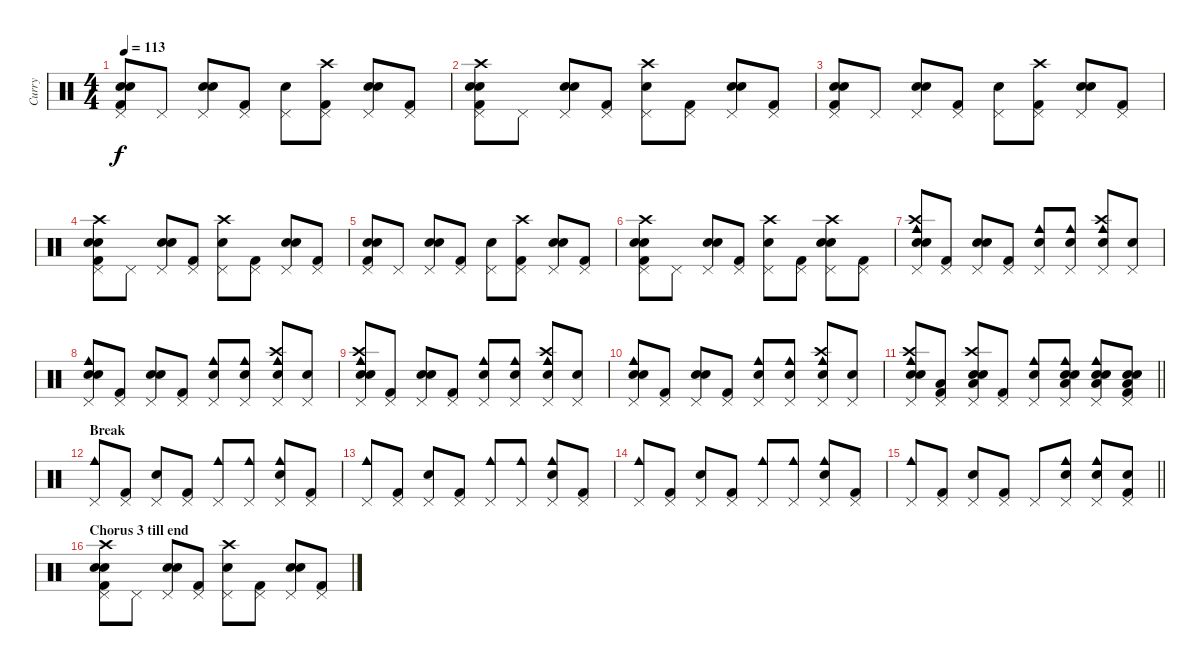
\track ("Curry" "Curry") {instrument percussion}
\staff {score}
\articulation defaults
\ts (4 4)
\tempo 113
\clef neutral
\ks c
("Pedal Hi-Hat (hit)" "Kick (hit) 2" "Electric Snare (hit)" "Snare (hit) 2").8{dy f} "Pedal Hi-Hat (hit)".8 ("Pedal Hi-Hat (hit)" "Electric Snare (hit)" "Snare (hit) 2").8 ("Pedal Hi-Hat (hit)" "Kick (hit) 2").8 ("Pedal Hi-Hat (hit)" "Snare (hit) 2").8 ("Pedal Hi-Hat (hit)" "Kick (hit) 2" "Crash high (hit)").8 ("Pedal Hi-Hat (hit)" "Electric Snare (hit)" "Snare (hit) 2").8 ("Pedal Hi-Hat (hit)" "Kick (hit) 2").8 |
("Pedal Hi-Hat (hit)" "Kick (hit) 2" "Electric Snare (hit)" "Snare (hit) 2" "Crash high (hit)").8 "Pedal Hi-Hat (hit)".8 ("Pedal Hi-Hat (hit)" "Electric Snare (hit)" "Snare (hit) 2").8 ("Pedal Hi-Hat (hit)" "Kick (hit) 2").8 ("Pedal Hi-Hat (hit)" "Snare (hit) 2" "Crash high (hit)").8 ("Pedal Hi-Hat (hit)" "Kick (hit) 2").8 ("Pedal Hi-Hat (hit)" "Electric Snare (hit)" "Snare (hit) 2").8 ("Pedal Hi-Hat (hit)" "Kick (hit) 2").8 |
("Pedal Hi-Hat (hit)" "Kick (hit) 2" "Electric Snare (hit)" "Snare (hit) 2").8 "Pedal Hi-Hat (hit)".8 ("Pedal Hi-Hat (hit)" "Electric Snare (hit)" "Snare (hit) 2").8 ("Pedal Hi-Hat (hit)" "Kick (hit) 2").8 ("Pedal Hi-Hat (hit)" "Snare (hit) 2").8 ("Pedal Hi-Hat (hit)" "Kick (hit) 2" "Crash high (hit)").8 ("Pedal Hi-Hat (hit)" "Electric Snare (hit)" "Snare (hit) 2").8 ("Pedal Hi-Hat (hit)" "Kick (hit) 2").8 |
("Pedal Hi-Hat (hit)" "Kick (hit) 2" "Electric Snare (hit)" "Snare (hit) 2" "Crash high (hit)").8 "Pedal Hi-Hat (hit)".8 ("Pedal Hi-Hat (hit)" "Electric Snare (hit)" "Snare (hit) 2").8 ("Pedal Hi-Hat (hit)" "Kick (hit) 2").8 ("Pedal Hi-Hat (hit)" "Snare (hit) 2" "Crash high (hit)").8 ("Pedal Hi-Hat (hit)" "Kick (hit) 2").8 ("Pedal Hi-Hat (hit)" "Electric Snare (hit)" "Snare (hit) 2").8 ("Pedal Hi-Hat (hit)" "Kick (hit) 2").8 |
("Pedal Hi-Hat (hit)" "Kick (hit) 2" "Electric Snare (hit)" "Snare (hit) 2").8 "Pedal Hi-Hat (hit)".8 ("Pedal Hi-Hat (hit)" "Electric Snare (hit)" "Snare (hit) 2").8 ("Pedal Hi-Hat (hit)" "Kick (hit) 2").8 ("Pedal Hi-Hat (hit)" "Snare (hit) 2").8 ("Pedal Hi-Hat (hit)" "Kick (hit) 2" "Crash high (hit)").8 ("Pedal Hi-Hat (hit)" "Electric Snare (hit)" "Snare (hit) 2").8 ("Pedal Hi-Hat (hit)" "Kick (hit) 2").8 |
("Pedal Hi-Hat (hit)" "Kick (hit) 2" "Electric Snare (hit)" "Snare (hit) 2" "Crash high (hit)").8 "Pedal Hi-Hat (hit)".8 ("Pedal Hi-Hat (hit)" "Electric Snare (hit)" "Snare (hit) 2").8 ("Pedal Hi-Hat (hit)" "Kick (hit) 2").8 ("Pedal Hi-Hat (hit)" "Snare (hit) 2" "Crash high (hit)").8 ("Pedal Hi-Hat (hit)" "Kick (hit) 2").8 ("Pedal Hi-Hat (hit)" "Electric Snare (hit)" "Snare (hit) 2" "Crash high (hit)").8 ("Pedal Hi-Hat (hit)" "Kick (hit) 2").8 |
("Pedal Hi-Hat (hit)" "Cowbell medium (hit)" "Electric Snare (hit)" "Snare (hit) 2" "Crash high (hit)").8 ("Pedal Hi-Hat (hit)" "Kick (hit) 2").8 ("Pedal Hi-Hat (hit)" "Electric Snare (hit)" "Snare (hit) 2").8 ("Pedal Hi-Hat (hit)" "Kick (hit) 2").8 ("Pedal Hi-Hat (hit)" "Cowbell medium (hit)" "Snare (hit) 2").8 ("Pedal Hi-Hat (hit)" "Cowbell medium (hit)" "Snare (hit) 2").8 ("Pedal Hi-Hat (hit)" "Cowbell medium (hit)" "Electric Snare (hit)" "Crash high (hit)").8 ("Pedal Hi-Hat (hit)" "Snare (hit) 2").8 |
("Pedal Hi-Hat (hit)" "Cowbell medium (hit)" "Electric Snare (hit)" "Snare (hit) 2").8 ("Pedal Hi-Hat (hit)" "Kick (hit) 2").8 ("Pedal Hi-Hat (hit)" "Electric Snare (hit)" "Snare (hit) 2").8 ("Pedal Hi-Hat (hit)" "Kick (hit) 2").8 ("Pedal Hi-Hat (hit)" "Cowbell medium (hit)" "Snare (hit) 2").8 ("Pedal Hi-Hat (hit)" "Cowbell medium (hit)" "Snare (hit) 2").8 ("Pedal Hi-Hat (hit)" "Cowbell medium (hit)" "Electric Snare (hit)" "Crash high (hit)").8 ("Pedal Hi-Hat (hit)" "Snare (hit) 2").8 |
("Pedal Hi-Hat (hit)" "Cowbell medium (hit)" "Electric Snare (hit)" "Snare (hit) 2" "Crash high (hit)").8 ("Pedal Hi-Hat (hit)" "Kick (hit) 2").8 ("Pedal Hi-Hat (hit)" "Electric Snare (hit)" "Snare (hit) 2").8 ("Pedal Hi-Hat (hit)" "Kick (hit) 2").8 ("Pedal Hi-Hat (hit)" "Cowbell medium (hit)" "Snare (hit) 2").8 ("Pedal Hi-Hat (hit)" "Cowbell medium (hit)" "Snare (hit) 2").8 ("Pedal Hi-Hat (hit)" "Cowbell medium (hit)" "Electric Snare (hit)" "Crash high (hit)").8 ("Pedal Hi-Hat (hit)" "Snare (hit) 2").8 |
("Pedal Hi-Hat (hit)" "Cowbell medium (hit)" "Electric Snare (hit)" "Snare (hit) 2").8 ("Pedal Hi-Hat (hit)" "Kick (hit) 2").8 ("Pedal Hi-Hat (hit)" "Electric Snare (hit)" "Snare (hit) 2").8 ("Pedal Hi-Hat (hit)" "Kick (hit) 2").8 ("Pedal Hi-Hat (hit)" "Cowbell medium (hit)" "Snare (hit) 2").8 ("Pedal Hi-Hat (hit)" "Cowbell medium (hit)" "Snare (hit) 2").8 ("Pedal Hi-Hat (hit)" "Cowbell medium (hit)" "Electric Snare (hit)" "Crash high (hit)").8 ("Pedal Hi-Hat (hit)" "Snare (hit) 2").8 |
\barLineRight lightlight
("Pedal Hi-Hat (hit)" "Cowbell medium (hit)" "Electric Snare (hit)" "Snare (hit) 2" "Crash high (hit)").8 ("Pedal Hi-Hat (hit)" "Kick (hit) 2" "Low Tom (hit)").8 ("Pedal Hi-Hat (hit)" "Electric Snare (hit)" "Snare (hit) 2" "Low Tom (hit)" "Crash high (hit)").8 ("Pedal Hi-Hat (hit)" "Kick (hit) 2").8 ("Pedal Hi-Hat (hit)" "Cowbell medium (hit)" "Snare (hit) 2").8 ("Pedal Hi-Hat (hit)" "Cowbell medium (hit)" "Electric Snare (hit)" "Snare (hit) 2" "Low Tom (hit)").8 ("Pedal Hi-Hat (hit)" "Cowbell medium (hit)" "Electric Snare (hit)" "Snare (hit) 2" "Low Tom (hit)").8 ("Pedal Hi-Hat (hit)" "Kick (hit) 2" "Electric Snare (hit)" "Snare (hit) 2" "Low Tom (hit)").8 |
\section ("" "Break")
("Pedal Hi-Hat (hit)" "Cowbell medium (hit)").8 ("Pedal Hi-Hat (hit)" "Kick (hit) 2").8 ("Pedal Hi-Hat (hit)" "Electric Snare (hit)").8 ("Pedal Hi-Hat (hit)" "Kick (hit) 2").8 ("Pedal Hi-Hat (hit)" "Cowbell medium (hit)").8 ("Pedal Hi-Hat (hit)" "Cowbell medium (hit)").8 ("Pedal Hi-Hat (hit)" "Cowbell medium (hit)" "Electric Snare (hit)").8 ("Pedal Hi-Hat (hit)" "Kick (hit) 2").8 |
("Pedal Hi-Hat (hit)" "Cowbell medium (hit)").8 ("Pedal Hi-Hat (hit)" "Kick (hit) 2").8 ("Pedal Hi-Hat (hit)" "Electric Snare (hit)").8 ("Pedal Hi-Hat (hit)" "Kick (hit) 2").8 ("Pedal Hi-Hat (hit)" "Cowbell medium (hit)").8 ("Pedal Hi-Hat (hit)" "Cowbell medium (hit)").8 ("Pedal Hi-Hat (hit)" "Cowbell medium (hit)" "Electric Snare (hit)").8 ("Pedal Hi-Hat (hit)" "Kick (hit) 2").8 |
("Pedal Hi-Hat (hit)" "Cowbell medium (hit)").8 ("Pedal Hi-Hat (hit)" "Kick (hit) 2").8 ("Pedal Hi-Hat (hit)" "Electric Snare (hit)").8 ("Pedal Hi-Hat (hit)" "Kick (hit) 2").8 ("Pedal Hi-Hat (hit)" "Cowbell medium (hit)").8 ("Pedal Hi-Hat (hit)" "Cowbell medium (hit)").8 ("Pedal Hi-Hat (hit)" "Cowbell medium (hit)" "Electric Snare (hit)").8 ("Pedal Hi-Hat (hit)" "Kick (hit) 2").8 |
\barLineRight lightlight
("Pedal Hi-Hat (hit)" "Cowbell medium (hit)").8 ("Pedal Hi-Hat (hit)" "Kick (hit) 2").8 ("Pedal Hi-Hat (hit)" "Electric Snare (hit)").8 ("Pedal Hi-Hat (hit)" "Kick (hit) 2").8 "Pedal Hi-Hat (hit)".8 ("Pedal Hi-Hat (hit)" "Cowbell medium (hit)" "Electric Snare (hit)").8 ("Pedal Hi-Hat (hit)" "Cowbell medium (hit)" "Electric Snare (hit)").8 ("Pedal Hi-Hat (hit)" "Kick (hit) 2" "Electric Snare (hit)").8 |
\section ("" "Chorus 3 till end")
("Pedal Hi-Hat (hit)" "Kick (hit) 2" "Electric Snare (hit)" "Snare (hit) 2" "Crash high (hit)").8 "Pedal Hi-Hat (hit)".8 ("Pedal Hi-Hat (hit)" "Electric Snare (hit)" "Snare (hit) 2").8 ("Pedal Hi-Hat (hit)" "Kick (hit) 2").8 ("Pedal Hi-Hat (hit)" "Snare (hit) 2" "Crash high (hit)").8 ("Pedal Hi-Hat (hit)" "Kick (hit) 2").8 ("Pedal Hi-Hat (hit)" "Electric Snare (hit)" "Snare (hit) 2").8 ("Pedal Hi-Hat (hit)" "Kick (hit) 2").8
